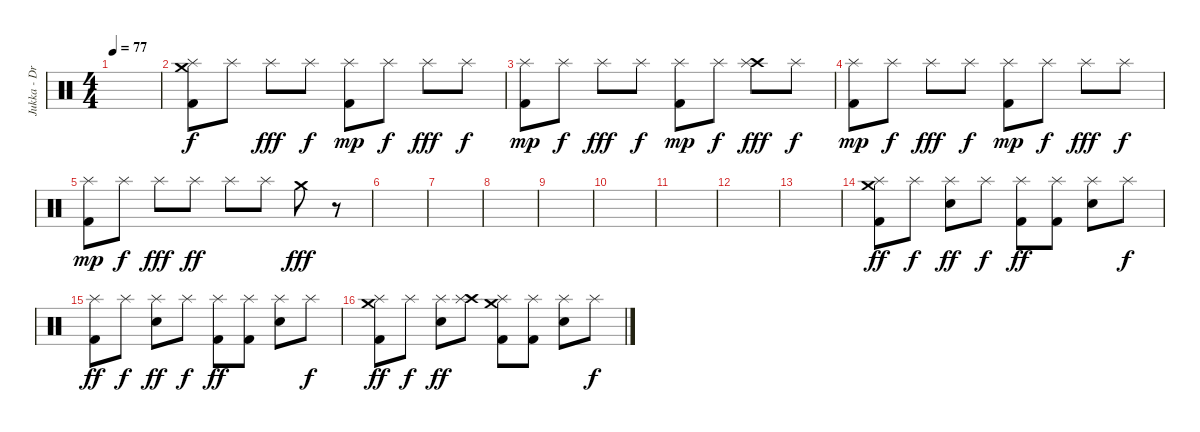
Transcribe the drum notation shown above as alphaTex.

\track ("Jukka - Drums" "Jukka - Dr") {instrument percussion}
\staff {score}
\articulation defaults
\ts (4 4)
\tempo 77
\clef neutral
\ks c
|
("Crash medium (hit)" "Splash (hit)" "Kick (hit) 2").8 "Splash (hit)".8{dy f} "Splash (hit)".8{dy fff} "Splash (hit)".8{dy f} ("Splash (hit)" "Kick (hit) 2").8{dy mp} "Splash (hit)".8{dy f} "Splash (hit)".8{dy fff} "Splash (hit)".8{dy f} |
("Splash (hit)" "Kick (hit) 2").8{dy mp} "Splash (hit)".8{dy f} "Splash (hit)".8{dy fff} "Splash (hit)".8{dy f} ("Splash (hit)" "Kick (hit) 2").8{dy mp} "Splash (hit)".8{dy f} ("Crash high (hit)" "Splash (hit)").8{dy fff} "Splash (hit)".8{dy f} |
("Splash (hit)" "Kick (hit) 2").8{dy mp} "Splash (hit)".8{dy f} "Splash (hit)".8{dy fff} "Splash (hit)".8{dy f} ("Splash (hit)" "Kick (hit) 2").8{dy mp} "Splash (hit)".8{dy f} "Splash (hit)".8{dy fff} "Splash (hit)".8{dy f} |
("Splash (hit)" "Kick (hit) 2").8{dy mp} "Splash (hit)".8{dy f} "Splash (hit)".8{dy fff} "Splash (hit)".8{dy ff} "Splash (hit)".8 "Splash (hit)".8 "Crash medium (hit)".8{dy fff} r.8 |
|
|
|
|
|
|
|
|
("Crash medium (hit)" "Splash (hit)" "Kick (hit) 2").8{dy ff} "Splash (hit)".8{dy f} ("Splash (hit)" "Electric Snare (hit)").8{dy ff} "Splash (hit)".8{dy f} ("Splash (hit)" "Kick (hit) 2").8{dy ff} ("Splash (hit)" "Kick (hit) 2").8 ("Splash (hit)" "Electric Snare (hit)").8 "Splash (hit)".8{dy f} |
("Splash (hit)" "Kick (hit) 2").8{dy ff} "Splash (hit)".8{dy f} ("Splash (hit)" "Electric Snare (hit)").8{dy ff} "Splash (hit)".8{dy f} ("Splash (hit)" "Kick (hit) 2").8{dy ff} ("Splash (hit)" "Kick (hit) 2").8 ("Splash (hit)" "Electric Snare (hit)").8 "Splash (hit)".8{dy f} |
("Crash medium (hit)" "Splash (hit)" "Kick (hit) 2").8{dy ff} "Splash (hit)".8{dy f} ("Splash (hit)" "Electric Snare (hit)").8{dy ff} ("Crash high (hit)" "Splash (hit)").8 ("Crash medium (hit)" "Splash (hit)" "Kick (hit) 2").8 ("Splash (hit)" "Kick (hit) 2").8 ("Splash (hit)" "Electric Snare (hit)").8 "Splash (hit)".8{dy f}
